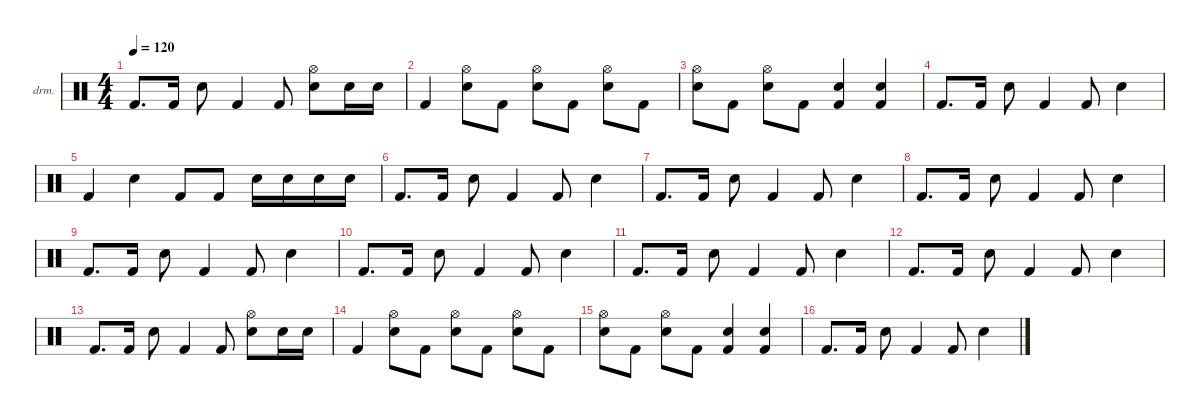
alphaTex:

\defaultSystemsLayout 4
\hideDynamics
\bracketExtendMode nobrackets
\firstSystemTrackNameOrientation horizontal
\otherSystemsTrackNameOrientation horizontal
\track ("Percussion" "drm.") {instrument percussion}
\staff {score}
\articulation defaults
\ts (4 4)
\tempo 120
\clef neutral
\ks c "Kick (hit) 2".8{d dy f} "Kick (hit) 2".16 "Snare (hit) 2".8 "Kick (hit) 2".4 "Kick (hit) 2".8
("Snare (hit) 2" "Hi-Hat (open)").8 "Snare (hit) 2".16 "Snare (hit) 2".16 |
"Kick (hit) 2".4 ("Snare (hit) 2" "Hi-Hat (open)").8 "Kick (hit) 2".8 ("Snare (hit) 2" "Hi-Hat (open)").8 "Kick (hit) 2".8 ("Snare (hit) 2" "Hi-Hat (open)").8 "Kick (hit) 2".8 |
("Snare (hit) 2" "Hi-Hat (open)").8 "Kick (hit) 2".8 ("Snare (hit) 2" "Hi-Hat (open)").8 "Kick (hit) 2".8 ("Snare (hit) 2" "Kick (hit) 2").4 ("Snare (hit) 2" "Kick (hit) 2").4 |
"Kick (hit) 2".8{d} "Kick (hit) 2".16 "Snare (hit) 2".8 "Kick (hit) 2".4 "Kick (hit) 2".8 "Snare (hit) 2".4 |
"Kick (hit) 2".4 "Snare (hit) 2".4 "Kick (hit) 2".8 "Kick (hit) 2".8 "Snare (hit) 2".16 "Snare (hit) 2".16 "Snare (hit) 2".16 "Snare (hit) 2".16 |
"Kick (hit) 2".8{d} "Kick (hit) 2".16 "Snare (hit) 2".8 "Kick (hit) 2".4 "Kick (hit) 2".8 "Snare (hit) 2".4 |
"Kick (hit) 2".8{d} "Kick (hit) 2".16 "Snare (hit) 2".8 "Kick (hit) 2".4 "Kick (hit) 2".8 "Snare (hit) 2".4 |
"Kick (hit) 2".8{d} "Kick (hit) 2".16 "Snare (hit) 2".8 "Kick (hit) 2".4 "Kick (hit) 2".8 "Snare (hit) 2".4 |
"Kick (hit) 2".8{d} "Kick (hit) 2".16 "Snare (hit) 2".8 "Kick (hit) 2".4 "Kick (hit) 2".8 "Snare (hit) 2".4 |
"Kick (hit) 2".8{d} "Kick (hit) 2".16 "Snare (hit) 2".8 "Kick (hit) 2".4 "Kick (hit) 2".8 "Snare (hit) 2".4 |
"Kick (hit) 2".8{d} "Kick (hit) 2".16 "Snare (hit) 2".8 "Kick (hit) 2".4 "Kick (hit) 2".8 "Snare (hit) 2".4 |
"Kick (hit) 2".8{d} "Kick (hit) 2".16 "Snare (hit) 2".8 "Kick (hit) 2".4 "Kick (hit) 2".8 "Snare (hit) 2".4 |
"Kick (hit) 2".8{d} "Kick (hit) 2".16 "Snare (hit) 2".8 "Kick (hit) 2".4 "Kick (hit) 2".8 ("Snare (hit) 2" "Hi-Hat (open)").8 "Snare (hit) 2".16 "Snare (hit) 2".16 |
"Kick (hit) 2".4 ("Snare (hit) 2" "Hi-Hat (open)").8 "Kick (hit) 2".8 ("Snare (hit) 2" "Hi-Hat (open)").8 "Kick (hit) 2".8 ("Snare (hit) 2" "Hi-Hat (open)").8 "Kick (hit) 2".8 |
("Snare (hit) 2" "Hi-Hat (open)").8 "Kick (hit) 2".8 ("Snare (hit) 2" "Hi-Hat (open)").8 "Kick (hit) 2".8 ("Snare (hit) 2" "Kick (hit) 2").4 ("Snare (hit) 2" "Kick (hit) 2").4 |
"Kick (hit) 2".8{d} "Kick (hit) 2".16 "Snare (hit) 2".8 "Kick (hit) 2".4 "Kick (hit) 2".8 "Snare (hit) 2".4
